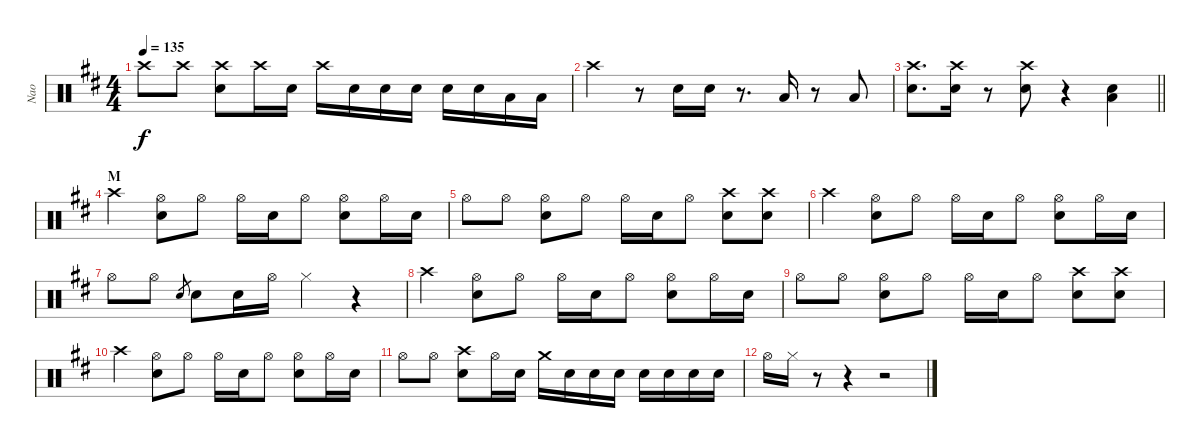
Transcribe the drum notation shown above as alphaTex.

\track ("Nao" "Nao") {instrument percussion}
\staff {score}
\articulation defaults
\ts (4 4)
\tempo 135
\clef neutral
\ks d "Crash high (hit)".8{dy f} "Crash high (hit)".8
("Crash high (hit)" "Snare (hit) 2").8 "Crash high (hit)".16 "Snare (hit) 2".16 "Crash high (hit)".16 "Snare (hit) 2".16 "Snare (hit) 2".16 "Snare (hit) 2".16 "Snare (hit) 2".16 "Snare (hit) 2".16 "Low Tom (hit)".16 "Low Tom (hit)".16 |
"Crash high (hit)".4 r.8 "Snare (hit) 2".16 "Snare (hit) 2".16 r.8{d} "Low Tom (hit)".16 r.8 "Low Tom (hit)".8 |
\barLineRight lightlight
("Crash high (hit)" "Snare (hit) 2").8{d} ("Crash high (hit)" "Snare (hit) 2").16 r.8 ("Crash high (hit)" "Snare (hit) 2").8 r.4 ("Snare (hit) 2" "Low Tom (hit)").4 |
\section ("" "M")
"Crash high (hit)".4 ("Hi-Hat (open)" "Snare (hit) 2").8 "Hi-Hat (open)".8 "Hi-Hat (open)".16 "Snare (hit) 2".16 "Hi-Hat (open)".8 ("Hi-Hat (open)" "Snare (hit) 2").8 "Hi-Hat (open)".16 "Snare (hit) 2".16 |
"Hi-Hat (open)".8 "Hi-Hat (open)".8 ("Hi-Hat (open)" "Snare (hit) 2").8 "Hi-Hat (open)".8 "Hi-Hat (open)".16 "Snare (hit) 2".16 "Hi-Hat (open)".8 ("Crash high (hit)" "Snare (hit) 2").8 ("Crash high (hit)" "Snare (hit) 2").8 |
"Crash high (hit)".4 ("Hi-Hat (open)" "Snare (hit) 2").8 "Hi-Hat (open)".8 "Hi-Hat (open)".16 "Snare (hit) 2".16 "Hi-Hat (open)".8 ("Hi-Hat (open)" "Snare (hit) 2").8 "Hi-Hat (open)".16 "Snare (hit) 2".16 |
"Hi-Hat (open)".8 "Hi-Hat (open)".8 "Snare (hit) 2".8{gr} "Snare (hit) 2".8 "Snare (hit) 2".16 "Hi-Hat (open)".16 "Hi-Hat (closed)".4 r.4 |
"Crash high (hit)".4 ("Hi-Hat (open)" "Snare (hit) 2").8 "Hi-Hat (open)".8 "Hi-Hat (open)".16 "Snare (hit) 2".16 "Hi-Hat (open)".8 ("Hi-Hat (open)" "Snare (hit) 2").8 "Hi-Hat (open)".16 "Snare (hit) 2".16 |
"Hi-Hat (open)".8 "Hi-Hat (open)".8 ("Hi-Hat (open)" "Snare (hit) 2").8 "Hi-Hat (open)".8 "Hi-Hat (open)".16 "Snare (hit) 2".16 "Hi-Hat (open)".8 ("Crash high (hit)" "Snare (hit) 2").8 ("Crash high (hit)" "Snare (hit) 2").8 |
"Crash high (hit)".4 ("Hi-Hat (open)" "Snare (hit) 2").8 "Hi-Hat (open)".8 "Hi-Hat (open)".16 "Snare (hit) 2".16 "Hi-Hat (open)".8 ("Hi-Hat (open)" "Snare (hit) 2").8 "Hi-Hat (open)".16 "Snare (hit) 2".16 |
"Hi-Hat (open)".8 "Hi-Hat (open)".8 ("Crash high (hit)" "Snare (hit) 2").8 "Hi-Hat (open)".16 "Snare (hit) 2".16 "Crash medium (hit)".16 "Snare (hit) 2".16 "Snare (hit) 2".16 "Snare (hit) 2".16 "Snare (hit) 2".16 "Snare (hit) 2".16 "Snare (hit) 2".16 "Snare (hit) 2".16 |
"Hi-Hat (open)".16 "Hi-Hat (closed)".16 r.8 r.4 r.2
